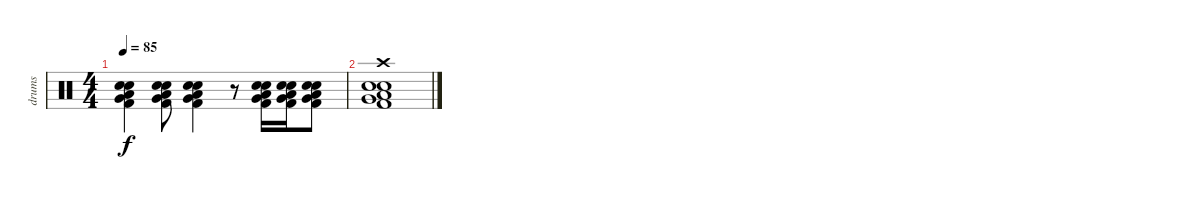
\track ("drums" "drums") {instrument percussion}
\staff {score}
\articulation defaults
\ts (4 4)
\tempo 85
\clef neutral
\ks c
("Electric Snare (hit)" "Snare (hit) 2" "Very Low Tom (hit)" "Kick (hit) 2" "Low Floor Tom (hit)").4{dy f} ("Snare (hit) 2" "Electric Snare (hit)" "Very Low Tom (hit)" "Kick (hit) 2" "Low Floor Tom (hit)").8 ("Snare (hit) 2" "Electric Snare (hit)" "Very Low Tom (hit)" "Kick (hit) 2" "Low Floor Tom (hit)").4 r.8 ("Snare (hit) 2" "Electric Snare (hit)" "Very Low Tom (hit)" "Kick (hit) 2" "Low Floor Tom (hit)").16 ("Snare (hit) 2" "Electric Snare (hit)" "Very Low Tom (hit)" "Kick (hit) 2" "Low Floor Tom (hit)").16 ("Snare (hit) 2" "Electric Snare (hit)" "Very Low Tom (hit)" "Kick (hit) 2" "Low Floor Tom (hit)").8 |
("Electric Snare (hit)" "Snare (hit) 2" "Very Low Tom (hit)" "Kick (hit) 2" "Low Floor Tom (hit)" "Crash high (hit)").1
